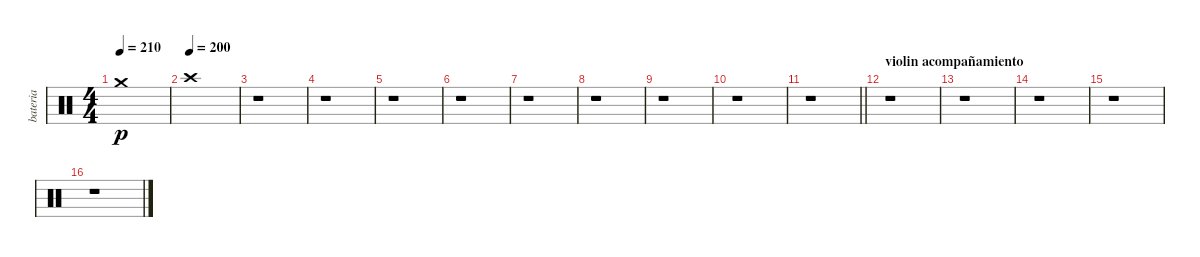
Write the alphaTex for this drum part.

\track ("bateria" "bateria") {instrument percussion}
\staff {score}
\articulation defaults
\ts (4 4)
\tempo 210
\clef neutral
\ks c "Crash medium (hit)".1{dy p}
|
\tempo (200)
"Crash high (hit)".1 |
r.1 |
r.1 |
r.1 |
r.1 |
r.1 |
r.1 |
r.1 |
r.1 |
\barLineRight lightlight
r.1 |
\section ("" "violin acompañamiento")
r.1 |
r.1 |
r.1 |
r.1 |
r.1
